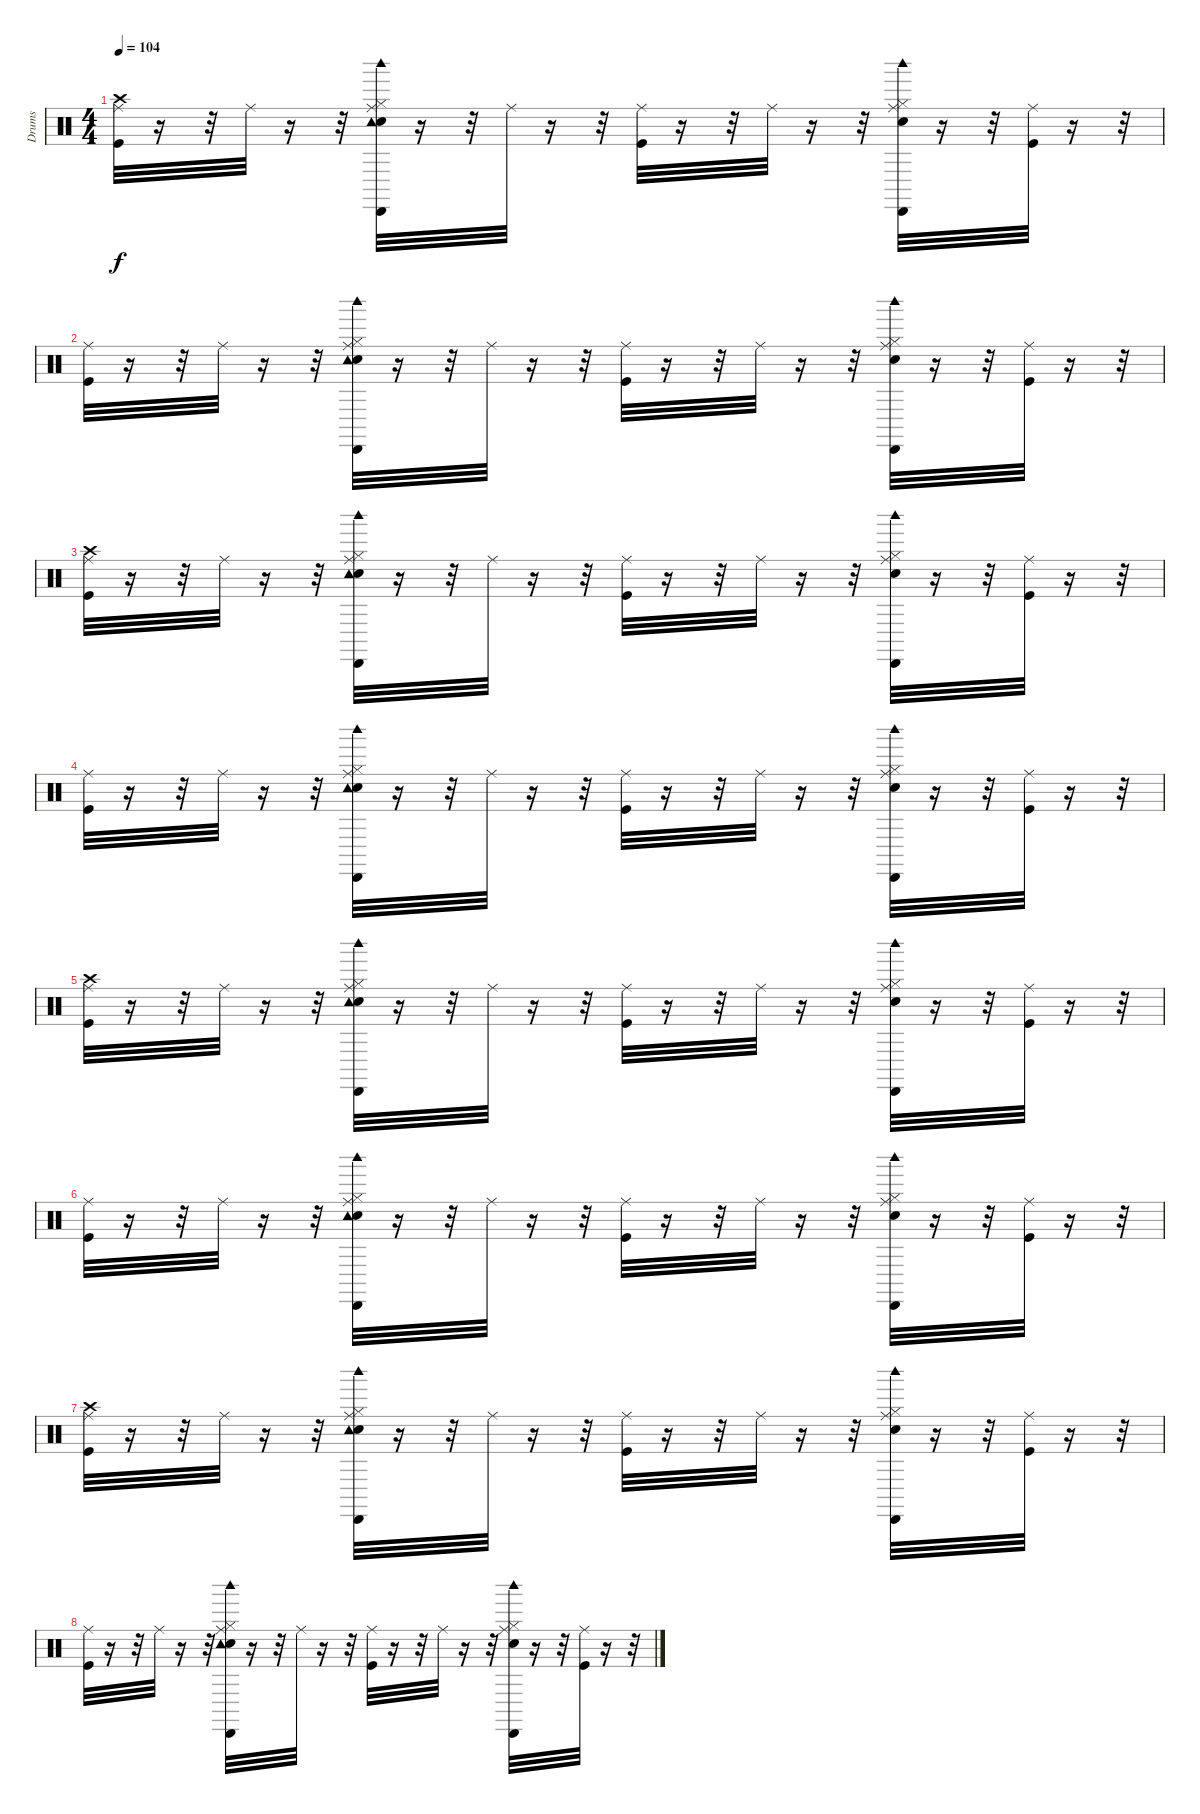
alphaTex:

\track ("Drums" "Drums") {instrument percussion}
\staff {score}
\articulation defaults
\ts (4 4)
\tempo 104
\clef neutral
\ks c
("Kick (hit)" "Crash high (hit)" "Ride (middle)").32{dy f} r.16 r.32 "Ride (middle)".32 r.16 r.32 ("Snare (hit) 2" "Hi-Hat (closed)" "Ride (middle)" "Tambourine (hit)" "Cabasa (hit)" "Woodblock high (hit)").32 r.16 r.32 "Ride (middle)".32 r.16 r.32 ("Kick (hit)" "Ride (middle)").32 r.16 r.32 "Ride (middle)".32 r.16 r.32 ("Snare (hit) 2" "Hi-Hat (closed)" "Ride (middle)" "Cabasa (hit)" "Woodblock high (hit)").32 r.16 r.32 ("Kick (hit)" "Ride (middle)").32 r.16 r.32 |
("Kick (hit)" "Ride (middle)").32 r.16 r.32 "Ride (middle)".32 r.16 r.32 ("Snare (hit) 2" "Hi-Hat (closed)" "Ride (middle)" "Tambourine (hit)" "Cabasa (hit)" "Woodblock high (hit)").32 r.16 r.32 "Ride (middle)".32 r.16 r.32 ("Kick (hit)" "Ride (middle)").32 r.16 r.32 "Ride (middle)".32 r.16 r.32 ("Snare (hit) 2" "Hi-Hat (closed)" "Ride (middle)" "Cabasa (hit)" "Woodblock high (hit)").32 r.16 r.32 ("Kick (hit)" "Ride (middle)").32 r.16 r.32 |
("Kick (hit)" "Crash high (hit)" "Ride (middle)").32 r.16 r.32 "Ride (middle)".32 r.16 r.32 ("Snare (hit) 2" "Hi-Hat (closed)" "Ride (middle)" "Tambourine (hit)" "Cabasa (hit)" "Woodblock high (hit)").32 r.16 r.32 "Ride (middle)".32 r.16 r.32 ("Kick (hit)" "Ride (middle)").32 r.16 r.32 "Ride (middle)".32 r.16 r.32 ("Snare (hit) 2" "Hi-Hat (closed)" "Ride (middle)" "Cabasa (hit)" "Woodblock high (hit)").32 r.16 r.32 ("Kick (hit)" "Ride (middle)").32 r.16 r.32 |
("Kick (hit)" "Ride (middle)").32 r.16 r.32 "Ride (middle)".32 r.16 r.32 ("Snare (hit) 2" "Hi-Hat (closed)" "Ride (middle)" "Tambourine (hit)" "Cabasa (hit)" "Woodblock high (hit)").32 r.16 r.32 "Ride (middle)".32 r.16 r.32 ("Kick (hit)" "Ride (middle)").32 r.16 r.32 "Ride (middle)".32 r.16 r.32 ("Snare (hit) 2" "Hi-Hat (closed)" "Ride (middle)" "Cabasa (hit)" "Woodblock high (hit)").32 r.16 r.32 ("Kick (hit)" "Ride (middle)").32 r.16 r.32 |
("Kick (hit)" "Crash high (hit)" "Ride (middle)").32 r.16 r.32 "Ride (middle)".32 r.16 r.32 ("Snare (hit) 2" "Hi-Hat (closed)" "Ride (middle)" "Tambourine (hit)" "Cabasa (hit)" "Woodblock high (hit)").32 r.16 r.32 "Ride (middle)".32 r.16 r.32 ("Kick (hit)" "Ride (middle)").32 r.16 r.32 "Ride (middle)".32 r.16 r.32 ("Snare (hit) 2" "Hi-Hat (closed)" "Ride (middle)" "Cabasa (hit)" "Woodblock high (hit)").32 r.16 r.32 ("Kick (hit)" "Ride (middle)").32 r.16 r.32 |
("Kick (hit)" "Ride (middle)").32 r.16 r.32 "Ride (middle)".32 r.16 r.32 ("Snare (hit) 2" "Hi-Hat (closed)" "Ride (middle)" "Tambourine (hit)" "Cabasa (hit)" "Woodblock high (hit)").32 r.16 r.32 "Ride (middle)".32 r.16 r.32 ("Kick (hit)" "Ride (middle)").32 r.16 r.32 "Ride (middle)".32 r.16 r.32 ("Snare (hit) 2" "Hi-Hat (closed)" "Ride (middle)" "Cabasa (hit)" "Woodblock high (hit)").32 r.16 r.32 ("Kick (hit)" "Ride (middle)").32 r.16 r.32 |
("Kick (hit)" "Crash high (hit)" "Ride (middle)").32 r.16 r.32 "Ride (middle)".32 r.16 r.32 ("Snare (hit) 2" "Hi-Hat (closed)" "Ride (middle)" "Tambourine (hit)" "Cabasa (hit)" "Woodblock high (hit)").32 r.16 r.32 "Ride (middle)".32 r.16 r.32 ("Kick (hit)" "Ride (middle)").32 r.16 r.32 "Ride (middle)".32 r.16 r.32 ("Snare (hit) 2" "Hi-Hat (closed)" "Ride (middle)" "Cabasa (hit)" "Woodblock high (hit)").32 r.16 r.32 ("Kick (hit)" "Ride (middle)").32 r.16 r.32 |
("Kick (hit)" "Ride (middle)").32 r.16 r.32 "Ride (middle)".32 r.16 r.32 ("Snare (hit) 2" "Hi-Hat (closed)" "Ride (middle)" "Tambourine (hit)" "Cabasa (hit)" "Woodblock high (hit)").32 r.16 r.32 "Ride (middle)".32 r.16 r.32 ("Kick (hit)" "Ride (middle)").32 r.16 r.32 "Ride (middle)".32 r.16 r.32 ("Snare (hit) 2" "Hi-Hat (closed)" "Ride (middle)" "Cabasa (hit)" "Woodblock high (hit)").32 r.16 r.32 ("Kick (hit)" "Ride (middle)").32 r.16 r.32
